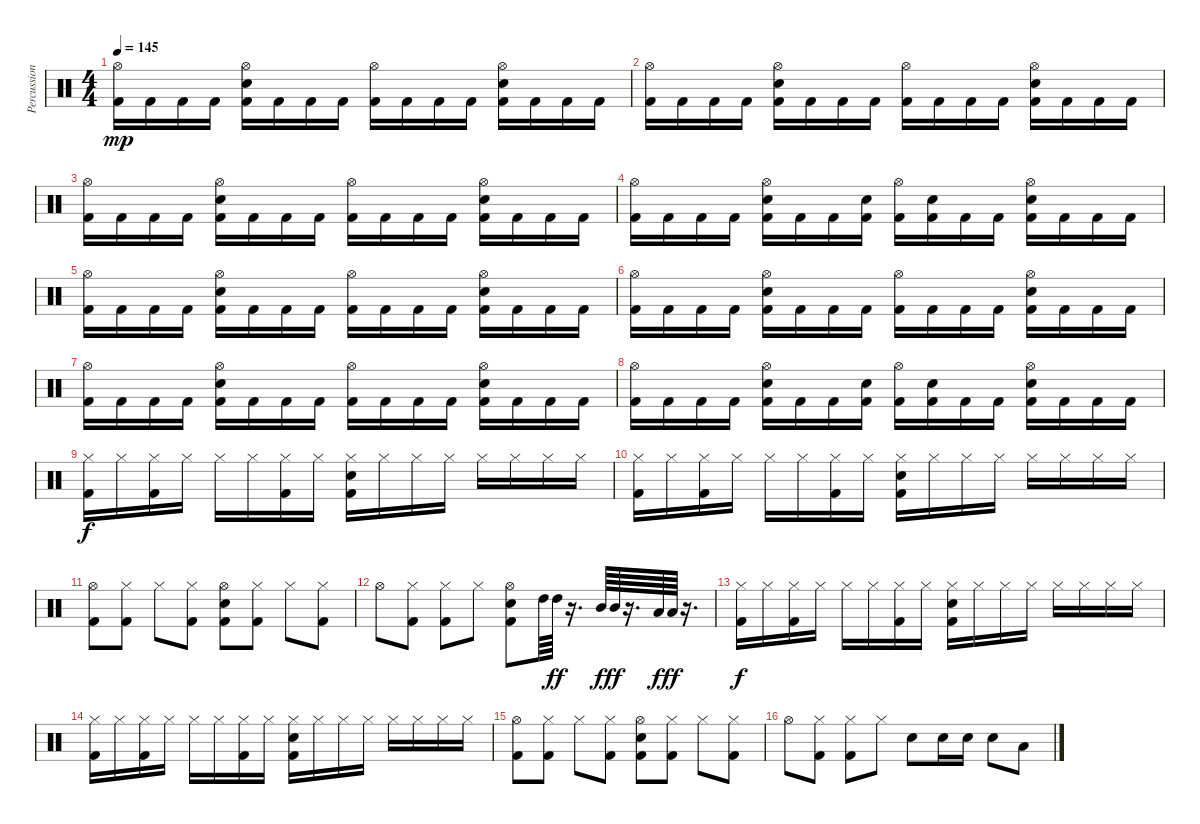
\track ("Percussion" "Percussion") {instrument percussion}
\staff {score}
\articulation defaults
\ts (4 4)
\tempo 145
\clef neutral
\ks c
("Hi-Hat (open)" "Kick (hit) 2").16{dy mp} "Kick (hit) 2".16 "Kick (hit) 2".16 "Kick (hit) 2".16 ("Hi-Hat (open)" "Electric Snare (hit)" "Kick (hit) 2").16 "Kick (hit) 2".16 "Kick (hit) 2".16 "Kick (hit) 2".16 ("Hi-Hat (open)" "Kick (hit) 2").16 "Kick (hit) 2".16 "Kick (hit) 2".16 "Kick (hit) 2".16 ("Hi-Hat (open)" "Electric Snare (hit)" "Kick (hit) 2").16 "Kick (hit) 2".16 "Kick (hit) 2".16 "Kick (hit) 2".16 |
("Hi-Hat (open)" "Kick (hit) 2").16 "Kick (hit) 2".16 "Kick (hit) 2".16 "Kick (hit) 2".16 ("Hi-Hat (open)" "Electric Snare (hit)" "Kick (hit) 2").16 "Kick (hit) 2".16 "Kick (hit) 2".16 "Kick (hit) 2".16 ("Hi-Hat (open)" "Kick (hit) 2").16 "Kick (hit) 2".16 "Kick (hit) 2".16 "Kick (hit) 2".16 ("Hi-Hat (open)" "Electric Snare (hit)" "Kick (hit) 2").16 "Kick (hit) 2".16 "Kick (hit) 2".16 "Kick (hit) 2".16 |
("Hi-Hat (open)" "Kick (hit) 2").16 "Kick (hit) 2".16 "Kick (hit) 2".16 "Kick (hit) 2".16 ("Hi-Hat (open)" "Electric Snare (hit)" "Kick (hit) 2").16 "Kick (hit) 2".16 "Kick (hit) 2".16 "Kick (hit) 2".16 ("Hi-Hat (open)" "Kick (hit) 2").16 "Kick (hit) 2".16 "Kick (hit) 2".16 "Kick (hit) 2".16 ("Hi-Hat (open)" "Electric Snare (hit)" "Kick (hit) 2").16 "Kick (hit) 2".16 "Kick (hit) 2".16 "Kick (hit) 2".16 |
("Hi-Hat (open)" "Kick (hit) 2").16 "Kick (hit) 2".16 "Kick (hit) 2".16 "Kick (hit) 2".16 ("Hi-Hat (open)" "Electric Snare (hit)" "Kick (hit) 2").16 "Kick (hit) 2".16 "Kick (hit) 2".16 ("Electric Snare (hit)" "Kick (hit) 2").16 ("Hi-Hat (open)" "Kick (hit) 2").16 ("Electric Snare (hit)" "Kick (hit) 2").16 "Kick (hit) 2".16 "Kick (hit) 2".16 ("Hi-Hat (open)" "Electric Snare (hit)" "Kick (hit) 2").16 "Kick (hit) 2".16 "Kick (hit) 2".16 "Kick (hit) 2".16 |
("Hi-Hat (open)" "Kick (hit) 2").16 "Kick (hit) 2".16 "Kick (hit) 2".16 "Kick (hit) 2".16 ("Hi-Hat (open)" "Electric Snare (hit)" "Kick (hit) 2").16 "Kick (hit) 2".16 "Kick (hit) 2".16 "Kick (hit) 2".16 ("Hi-Hat (open)" "Kick (hit) 2").16 "Kick (hit) 2".16 "Kick (hit) 2".16 "Kick (hit) 2".16 ("Hi-Hat (open)" "Electric Snare (hit)" "Kick (hit) 2").16 "Kick (hit) 2".16 "Kick (hit) 2".16 "Kick (hit) 2".16 |
("Hi-Hat (open)" "Kick (hit) 2").16 "Kick (hit) 2".16 "Kick (hit) 2".16 "Kick (hit) 2".16 ("Hi-Hat (open)" "Electric Snare (hit)" "Kick (hit) 2").16 "Kick (hit) 2".16 "Kick (hit) 2".16 "Kick (hit) 2".16 ("Hi-Hat (open)" "Kick (hit) 2").16 "Kick (hit) 2".16 "Kick (hit) 2".16 "Kick (hit) 2".16 ("Hi-Hat (open)" "Electric Snare (hit)" "Kick (hit) 2").16 "Kick (hit) 2".16 "Kick (hit) 2".16 "Kick (hit) 2".16 |
("Hi-Hat (open)" "Kick (hit) 2").16 "Kick (hit) 2".16 "Kick (hit) 2".16 "Kick (hit) 2".16 ("Hi-Hat (open)" "Electric Snare (hit)" "Kick (hit) 2").16 "Kick (hit) 2".16 "Kick (hit) 2".16 "Kick (hit) 2".16 ("Hi-Hat (open)" "Kick (hit) 2").16 "Kick (hit) 2".16 "Kick (hit) 2".16 "Kick (hit) 2".16 ("Hi-Hat (open)" "Electric Snare (hit)" "Kick (hit) 2").16 "Kick (hit) 2".16 "Kick (hit) 2".16 "Kick (hit) 2".16 |
("Hi-Hat (open)" "Kick (hit) 2").16 "Kick (hit) 2".16 "Kick (hit) 2".16 "Kick (hit) 2".16 ("Hi-Hat (open)" "Electric Snare (hit)" "Kick (hit) 2").16 "Kick (hit) 2".16 "Kick (hit) 2".16 ("Electric Snare (hit)" "Kick (hit) 2").16 ("Hi-Hat (open)" "Kick (hit) 2").16 ("Electric Snare (hit)" "Kick (hit) 2").16 "Kick (hit) 2".16 "Kick (hit) 2".16 ("Hi-Hat (open)" "Electric Snare (hit)" "Kick (hit) 2").16 "Kick (hit) 2".16 "Kick (hit) 2".16 "Kick (hit) 2".16 |
("Hi-Hat (closed)" "Kick (hit) 2").16{dy f} "Hi-Hat (closed)".16 ("Hi-Hat (closed)" "Kick (hit) 2").16 "Hi-Hat (closed)".16 "Hi-Hat (closed)".16 "Hi-Hat (closed)".16 ("Hi-Hat (closed)" "Kick (hit) 2").16 "Hi-Hat (closed)".16 ("Hi-Hat (closed)" "Electric Snare (hit)" "Kick (hit) 2").16 "Hi-Hat (closed)".16 "Hi-Hat (closed)".16 "Hi-Hat (closed)".16 "Hi-Hat (closed)".16 "Hi-Hat (closed)".16 "Hi-Hat (closed)".16 "Hi-Hat (closed)".16 |
("Hi-Hat (closed)" "Kick (hit) 2").16 "Hi-Hat (closed)".16 ("Hi-Hat (closed)" "Kick (hit) 2").16 "Hi-Hat (closed)".16 "Hi-Hat (closed)".16 "Hi-Hat (closed)".16 ("Hi-Hat (closed)" "Kick (hit) 2").16 "Hi-Hat (closed)".16 ("Hi-Hat (closed)" "Electric Snare (hit)" "Kick (hit) 2").16 "Hi-Hat (closed)".16 "Hi-Hat (closed)".16 "Hi-Hat (closed)".16 "Hi-Hat (closed)".16 "Hi-Hat (closed)".16 "Hi-Hat (closed)".16 "Hi-Hat (closed)".16 |
("Hi-Hat (open)" "Kick (hit) 2").8 ("Hi-Hat (closed)" "Kick (hit) 2").8 "Hi-Hat (closed)".8 ("Hi-Hat (closed)" "Kick (hit) 2").8 ("Hi-Hat (open)" "Electric Snare (hit)" "Kick (hit) 2").8 ("Hi-Hat (closed)" "Kick (hit) 2").8 "Hi-Hat (closed)".8 ("Hi-Hat (closed)" "Kick (hit) 2").8 |
"Hi-Hat (open)".8 ("Hi-Hat (closed)" "Kick (hit) 2").8 ("Hi-Hat (closed)" "Kick (hit) 2").8 "Hi-Hat (closed)".8 ("Hi-Hat (open)" "Electric Snare (hit)" "Kick (hit) 2").8 "High Tom (hit)".64 "High Tom (hit)".64{dy ff} r.16{d} "Mid Tom (hit)".64{dy f} "Mid Tom (hit)".64{dy ff} r.16{d} "Low Tom (hit)".64{dy f} "Low Tom (hit)".64{dy ff} r.16{d} |
("Hi-Hat (closed)" "Kick (hit) 2").16{dy f} "Hi-Hat (closed)".16 ("Hi-Hat (closed)" "Kick (hit) 2").16 "Hi-Hat (closed)".16 "Hi-Hat (closed)".16 "Hi-Hat (closed)".16 ("Hi-Hat (closed)" "Kick (hit) 2").16 "Hi-Hat (closed)".16 ("Hi-Hat (closed)" "Electric Snare (hit)" "Kick (hit) 2").16 "Hi-Hat (closed)".16 "Hi-Hat (closed)".16 "Hi-Hat (closed)".16 "Hi-Hat (closed)".16 "Hi-Hat (closed)".16 "Hi-Hat (closed)".16 "Hi-Hat (closed)".16 |
("Hi-Hat (closed)" "Kick (hit) 2").16 "Hi-Hat (closed)".16 ("Hi-Hat (closed)" "Kick (hit) 2").16 "Hi-Hat (closed)".16 "Hi-Hat (closed)".16 "Hi-Hat (closed)".16 ("Hi-Hat (closed)" "Kick (hit) 2").16 "Hi-Hat (closed)".16 ("Hi-Hat (closed)" "Electric Snare (hit)" "Kick (hit) 2").16 "Hi-Hat (closed)".16 "Hi-Hat (closed)".16 "Hi-Hat (closed)".16 "Hi-Hat (closed)".16 "Hi-Hat (closed)".16 "Hi-Hat (closed)".16 "Hi-Hat (closed)".16 |
("Hi-Hat (open)" "Kick (hit) 2").8 ("Hi-Hat (closed)" "Kick (hit) 2").8 "Hi-Hat (closed)".8 ("Hi-Hat (closed)" "Kick (hit) 2").8 ("Hi-Hat (open)" "Electric Snare (hit)" "Kick (hit) 2").8 ("Hi-Hat (closed)" "Kick (hit) 2").8 "Hi-Hat (closed)".8 ("Hi-Hat (closed)" "Kick (hit) 2").8 |
"Hi-Hat (open)".8 ("Hi-Hat (closed)" "Kick (hit) 2").8 ("Hi-Hat (closed)" "Kick (hit) 2").8 "Hi-Hat (closed)".8 "Electric Snare (hit)".8 "Electric Snare (hit)".16 "Electric Snare (hit)".16 "Electric Snare (hit)".8 "Low Tom (hit)".8
